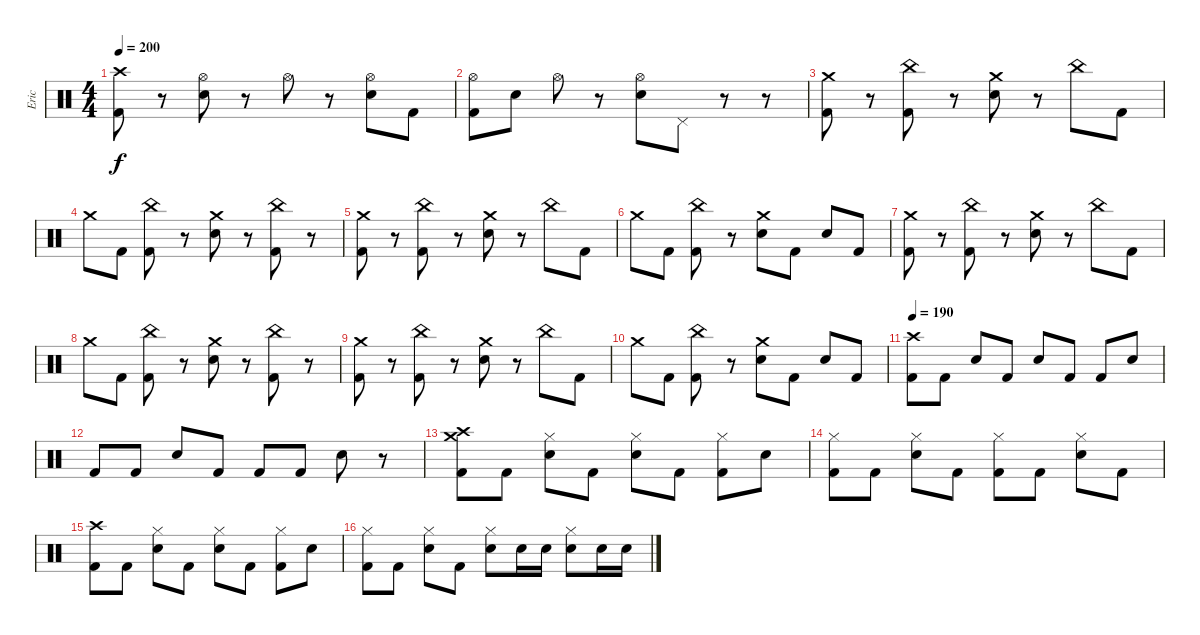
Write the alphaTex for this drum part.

\track ("Eric" "Eric") {instrument percussion}
\staff {score}
\articulation defaults
\ts (4 4)
\tempo 200
\clef neutral
\ks c
("Crash high (hit)" "Kick (hit) 2").8{dy f} r.8 ("Hi-Hat (open)" "Electric Snare (hit)").8 r.8 "Hi-Hat (open)".8 r.8 ("Hi-Hat (open)" "Electric Snare (hit)").8 "Kick (hit) 2".8 |
("Hi-Hat (open)" "Kick (hit) 2").8 "Electric Snare (hit)".8 "Hi-Hat (open)".8 r.8 ("Hi-Hat (open)" "Electric Snare (hit)").8 "Pedal Hi-Hat (hit)".8 r.8 r.8 |
("Crash medium (hit)" "Kick (hit) 2").8 r.8 ("China (hit)" "Kick (hit) 2").8 r.8 ("Crash medium (hit)" "Electric Snare (hit)").8 r.8 "China (hit)".8 "Kick (hit) 2".8 |
"Crash medium (hit)".8 "Kick (hit) 2".8 ("China (hit)" "Kick (hit) 2").8 r.8 ("Crash medium (hit)" "Electric Snare (hit)").8 r.8 ("China (hit)" "Kick (hit) 2").8 r.8 |
("Crash medium (hit)" "Kick (hit) 2").8 r.8 ("China (hit)" "Kick (hit) 2").8 r.8 ("Crash medium (hit)" "Electric Snare (hit)").8 r.8 "China (hit)".8 "Kick (hit) 2".8 |
"Crash medium (hit)".8 "Kick (hit) 2".8 ("China (hit)" "Kick (hit) 2").8 r.8 ("Crash medium (hit)" "Electric Snare (hit)").8 "Kick (hit) 2".8 "Electric Snare (hit)".8 "Kick (hit) 2".8 |
("Crash medium (hit)" "Kick (hit) 2").8 r.8 ("China (hit)" "Kick (hit) 2").8 r.8 ("Crash medium (hit)" "Electric Snare (hit)").8 r.8 "China (hit)".8 "Kick (hit) 2".8 |
"Crash medium (hit)".8 "Kick (hit) 2".8 ("China (hit)" "Kick (hit) 2").8 r.8 ("Crash medium (hit)" "Electric Snare (hit)").8 r.8 ("China (hit)" "Kick (hit) 2").8 r.8 |
("Crash medium (hit)" "Kick (hit) 2").8 r.8 ("China (hit)" "Kick (hit) 2").8 r.8 ("Crash medium (hit)" "Electric Snare (hit)").8 r.8 "China (hit)".8 "Kick (hit) 2".8 |
"Crash medium (hit)".8 "Kick (hit) 2".8 ("China (hit)" "Kick (hit) 2").8 r.8 ("Crash medium (hit)" "Electric Snare (hit)").8 "Kick (hit) 2".8 "Electric Snare (hit)".8 "Kick (hit) 2".8 |
\tempo 190
("Crash high (hit)" "Kick (hit) 2").8 "Kick (hit) 2".8 "Electric Snare (hit)".8 "Kick (hit) 2".8 "Electric Snare (hit)".8 "Kick (hit) 2".8 "Kick (hit) 2".8 "Electric Snare (hit)".8 |
"Kick (hit) 2".8 "Kick (hit) 2".8 "Electric Snare (hit)".8 "Kick (hit) 2".8 "Kick (hit) 2".8 "Kick (hit) 2".8 "Electric Snare (hit)".8 r.8 |
("Crash medium (hit)" "Crash high (hit)" "Kick (hit) 2").8 "Kick (hit) 2".8 ("Hi-Hat (closed)" "Electric Snare (hit)").8 "Kick (hit) 2".8 ("Hi-Hat (closed)" "Electric Snare (hit)").8 "Kick (hit) 2".8 ("Hi-Hat (closed)" "Kick (hit) 2").8 "Electric Snare (hit)".8 |
("Hi-Hat (closed)" "Kick (hit) 2").8 "Kick (hit) 2".8 ("Hi-Hat (closed)" "Electric Snare (hit)").8 "Kick (hit) 2".8 ("Hi-Hat (closed)" "Kick (hit) 2").8 "Kick (hit) 2".8 ("Hi-Hat (closed)" "Electric Snare (hit)").8 "Kick (hit) 2".8 |
("Crash high (hit)" "Kick (hit) 2").8 "Kick (hit) 2".8 ("Hi-Hat (closed)" "Electric Snare (hit)").8 "Kick (hit) 2".8 ("Hi-Hat (closed)" "Electric Snare (hit)").8 "Kick (hit) 2".8 ("Hi-Hat (closed)" "Kick (hit) 2").8 "Electric Snare (hit)".8 |
("Hi-Hat (closed)" "Kick (hit) 2").8 "Kick (hit) 2".8 ("Hi-Hat (closed)" "Electric Snare (hit)").8 "Kick (hit) 2".8 ("Hi-Hat (closed)" "Electric Snare (hit)").8 "Electric Snare (hit)".16 "Electric Snare (hit)".16 ("Hi-Hat (closed)" "Electric Snare (hit)").8 "Electric Snare (hit)".16 "Electric Snare (hit)".16
